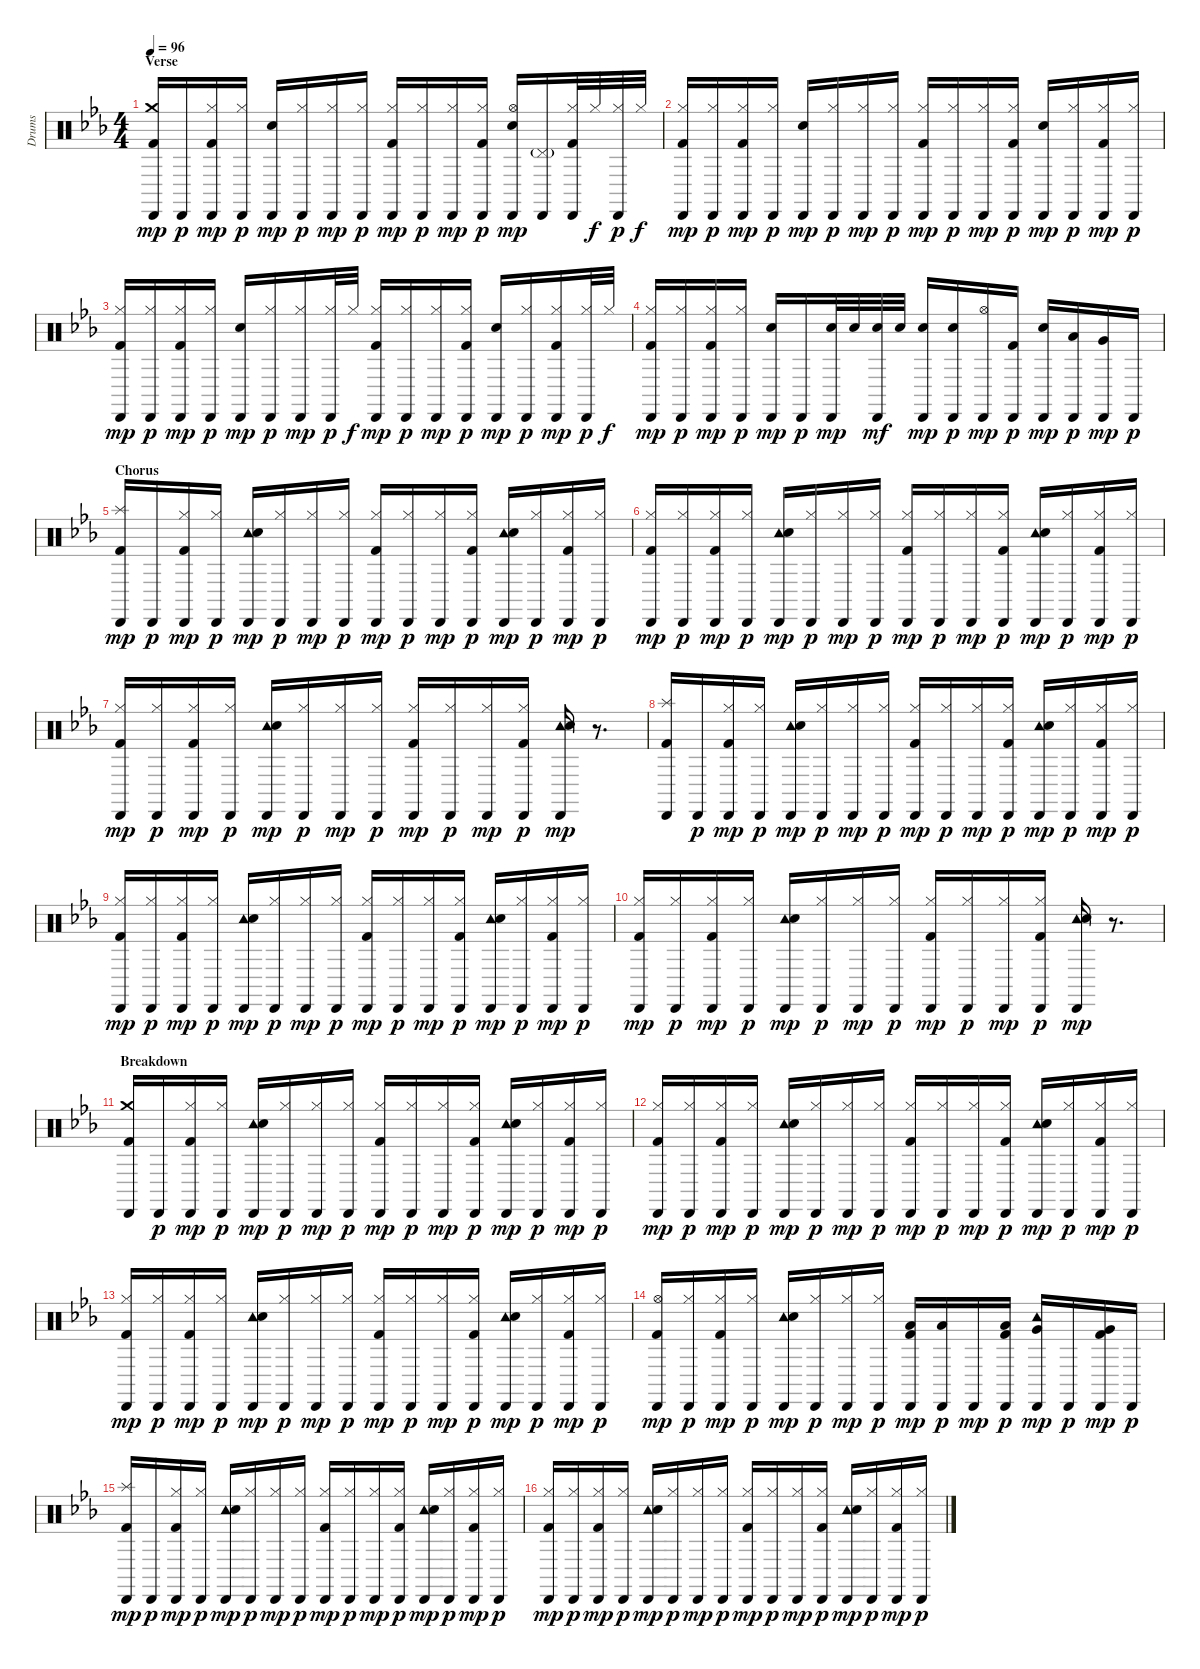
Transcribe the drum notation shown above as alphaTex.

\track ("Drums" "Drums") {instrument percussion}
\staff {score}
\articulation defaults
\ts (4 4)
\section ("" "Verse")
\tempo 96
\clef neutral
\ks eb
("Kick (hit) 2" "Crash medium (hit)" "Cabasa (hit)").16{dy mp} "Cabasa (hit)".16{dy p} ("Kick (hit) 2" "Cabasa (hit)" "Hi-Hat (closed)").16{dy mp} ("Cabasa (hit)" "Hi-Hat (closed)").16{dy p} ("Cabasa (hit)" "Snare (hit) 2").16{dy mp} ("Cabasa (hit)" "Hi-Hat (closed)").16{dy p} ("Cabasa (hit)" "Hi-Hat (closed)").16{dy mp} ("Cabasa (hit)" "Hi-Hat (closed)").16{dy p} ("Kick (hit) 2" "Cabasa (hit)" "Hi-Hat (closed)").16{dy mp} ("Cabasa (hit)" "Hi-Hat (closed)").16{dy p} ("Cabasa (hit)" "Hi-Hat (closed)").16{dy mp} ("Kick (hit) 2" "Cabasa (hit)" "Hi-Hat (closed)").16{dy p} ("Cabasa (hit)" "Snare (hit) 2" "Hi-Hat (open)").16{dy mp} ("Cabasa (hit)" "Pedal Hi-Hat (hit)"{g}).16 ("Kick (hit) 2" "Cabasa (hit)" "Hi-Hat (closed)").32 "Hi-Hat (closed)".32{dy f} ("Cabasa (hit)" "Hi-Hat (closed)").32{dy p} "Hi-Hat (closed)".32{dy f} |
("Kick (hit) 2" "Cabasa (hit)" "Hi-Hat (closed)").16{dy mp} ("Cabasa (hit)" "Hi-Hat (closed)").16{dy p} ("Kick (hit) 2" "Cabasa (hit)" "Hi-Hat (closed)").16{dy mp} ("Cabasa (hit)" "Hi-Hat (closed)").16{dy p} ("Cabasa (hit)" "Snare (hit) 2").16{dy mp} ("Cabasa (hit)" "Hi-Hat (closed)").16{dy p} ("Cabasa (hit)" "Hi-Hat (closed)").16{dy mp} ("Cabasa (hit)" "Hi-Hat (closed)").16{dy p} ("Kick (hit) 2" "Cabasa (hit)" "Hi-Hat (closed)").16{dy mp} ("Cabasa (hit)" "Hi-Hat (closed)").16{dy p} ("Cabasa (hit)" "Hi-Hat (closed)").16{dy mp} ("Kick (hit) 2" "Cabasa (hit)" "Hi-Hat (closed)").16{dy p} ("Cabasa (hit)" "Snare (hit) 2").16{dy mp} ("Cabasa (hit)" "Hi-Hat (closed)").16{dy p} ("Kick (hit) 2" "Cabasa (hit)" "Hi-Hat (closed)").16{dy mp} ("Cabasa (hit)" "Hi-Hat (closed)").16{dy p} |
("Kick (hit) 2" "Cabasa (hit)" "Hi-Hat (closed)").16{dy mp} ("Cabasa (hit)" "Hi-Hat (closed)").16{dy p} ("Kick (hit) 2" "Cabasa (hit)" "Hi-Hat (closed)").16{dy mp} ("Cabasa (hit)" "Hi-Hat (closed)").16{dy p} ("Cabasa (hit)" "Snare (hit) 2").16{dy mp} ("Cabasa (hit)" "Hi-Hat (closed)").16{dy p} ("Cabasa (hit)" "Hi-Hat (closed)").16{dy mp} ("Cabasa (hit)" "Hi-Hat (closed)").32{dy p} "Hi-Hat (closed)".32{dy f} ("Kick (hit) 2" "Cabasa (hit)" "Hi-Hat (closed)").16{dy mp} ("Cabasa (hit)" "Hi-Hat (closed)").16{dy p} ("Cabasa (hit)" "Hi-Hat (closed)").16{dy mp} ("Kick (hit) 2" "Cabasa (hit)" "Hi-Hat (closed)").16{dy p} ("Cabasa (hit)" "Snare (hit) 2").16{dy mp} ("Cabasa (hit)" "Hi-Hat (closed)").16{dy p} ("Kick (hit) 2" "Cabasa (hit)" "Hi-Hat (closed)").16{dy mp} ("Cabasa (hit)" "Hi-Hat (closed)").32{dy p} "Hi-Hat (closed)".32{dy f} |
("Kick (hit) 2" "Cabasa (hit)" "Hi-Hat (closed)").16{dy mp} ("Cabasa (hit)" "Hi-Hat (closed)").16{dy p} ("Kick (hit) 2" "Cabasa (hit)" "Hi-Hat (closed)").16{dy mp} ("Cabasa (hit)" "Hi-Hat (closed)").16{dy p} ("Cabasa (hit)" "Snare (hit) 2").16{dy mp} "Cabasa (hit)".16{dy p} ("Cabasa (hit)" "Snare (hit) 2").32{dy mp} "Snare (hit) 2".32 ("Cabasa (hit)" "Snare (hit) 2").32{dy mf} "Snare (hit) 2".32 ("Cabasa (hit)" "Snare (hit) 2").16{dy mp} ("Cabasa (hit)" "Snare (hit) 2").16{dy p} ("Cabasa (hit)" "Hi-Hat (open)").16{dy mp} ("Kick (hit) 2" "Cabasa (hit)").16{dy p} ("Cabasa (hit)" "Snare (hit) 2").16{dy mp} ("Cabasa (hit)" "Low Tom (hit)").16{dy p} ("Cabasa (hit)" "Very Low Tom (hit)").16{dy mp} "Cabasa (hit)".16{dy p} |
\section ("" "Chorus")
("Kick (hit) 2" "Splash (hit)" "Cabasa (hit)").16{dy mp} "Cabasa (hit)".16{dy p} ("Kick (hit) 2" "Cabasa (hit)" "Hi-Hat (closed)").16{dy mp} ("Cabasa (hit)" "Hi-Hat (closed)").16{dy p} ("Tambourine (hit)" "Cabasa (hit)" "Snare (hit) 2").16{dy mp} ("Cabasa (hit)" "Hi-Hat (closed)").16{dy p} ("Cabasa (hit)" "Hi-Hat (closed)").16{dy mp} ("Cabasa (hit)" "Hi-Hat (closed)").16{dy p} ("Kick (hit) 2" "Cabasa (hit)" "Hi-Hat (closed)").16{dy mp} ("Cabasa (hit)" "Hi-Hat (closed)").16{dy p} ("Cabasa (hit)" "Hi-Hat (closed)").16{dy mp} ("Kick (hit) 2" "Cabasa (hit)" "Hi-Hat (closed)").16{dy p} ("Tambourine (hit)" "Cabasa (hit)" "Snare (hit) 2").16{dy mp} ("Cabasa (hit)" "Hi-Hat (closed)").16{dy p} ("Kick (hit) 2" "Cabasa (hit)" "Hi-Hat (closed)").16{dy mp} ("Cabasa (hit)" "Hi-Hat (closed)").16{dy p} |
("Kick (hit) 2" "Cabasa (hit)" "Hi-Hat (closed)").16{dy mp} ("Cabasa (hit)" "Hi-Hat (closed)").16{dy p} ("Kick (hit) 2" "Cabasa (hit)" "Hi-Hat (closed)").16{dy mp} ("Cabasa (hit)" "Hi-Hat (closed)").16{dy p} ("Tambourine (hit)" "Cabasa (hit)" "Snare (hit) 2").16{dy mp} ("Cabasa (hit)" "Hi-Hat (closed)").16{dy p} ("Cabasa (hit)" "Hi-Hat (closed)").16{dy mp} ("Cabasa (hit)" "Hi-Hat (closed)").16{dy p} ("Kick (hit) 2" "Cabasa (hit)" "Hi-Hat (closed)").16{dy mp} ("Cabasa (hit)" "Hi-Hat (closed)").16{dy p} ("Cabasa (hit)" "Hi-Hat (closed)").16{dy mp} ("Kick (hit) 2" "Cabasa (hit)" "Hi-Hat (closed)").16{dy p} ("Tambourine (hit)" "Cabasa (hit)" "Snare (hit) 2").16{dy mp} ("Cabasa (hit)" "Hi-Hat (closed)").16{dy p} ("Kick (hit) 2" "Cabasa (hit)" "Hi-Hat (closed)").16{dy mp} ("Cabasa (hit)" "Hi-Hat (closed)").16{dy p} |
("Kick (hit) 2" "Cabasa (hit)" "Hi-Hat (closed)").16{dy mp} ("Cabasa (hit)" "Hi-Hat (closed)").16{dy p} ("Kick (hit) 2" "Cabasa (hit)" "Hi-Hat (closed)").16{dy mp} ("Cabasa (hit)" "Hi-Hat (closed)").16{dy p} ("Tambourine (hit)" "Cabasa (hit)" "Snare (hit) 2").16{dy mp} ("Cabasa (hit)" "Hi-Hat (closed)").16{dy p} ("Cabasa (hit)" "Hi-Hat (closed)").16{dy mp} ("Cabasa (hit)" "Hi-Hat (closed)").16{dy p} ("Kick (hit) 2" "Cabasa (hit)" "Hi-Hat (closed)").16{dy mp} ("Cabasa (hit)" "Hi-Hat (closed)").16{dy p} ("Cabasa (hit)" "Hi-Hat (closed)").16{dy mp} ("Kick (hit) 2" "Cabasa (hit)" "Hi-Hat (closed)").16{dy p} ("Tambourine (hit)" "Cabasa (hit)" "Snare (hit) 2").16{dy mp} r.8{d} |
("Kick (hit) 2" "Splash (hit)" "Cabasa (hit)").16 "Cabasa (hit)".16{dy p} ("Kick (hit) 2" "Cabasa (hit)" "Hi-Hat (closed)").16{dy mp} ("Cabasa (hit)" "Hi-Hat (closed)").16{dy p} ("Tambourine (hit)" "Cabasa (hit)" "Snare (hit) 2").16{dy mp} ("Cabasa (hit)" "Hi-Hat (closed)").16{dy p} ("Cabasa (hit)" "Hi-Hat (closed)").16{dy mp} ("Cabasa (hit)" "Hi-Hat (closed)").16{dy p} ("Kick (hit) 2" "Cabasa (hit)" "Hi-Hat (closed)").16{dy mp} ("Cabasa (hit)" "Hi-Hat (closed)").16{dy p} ("Cabasa (hit)" "Hi-Hat (closed)").16{dy mp} ("Kick (hit) 2" "Cabasa (hit)" "Hi-Hat (closed)").16{dy p} ("Tambourine (hit)" "Cabasa (hit)" "Snare (hit) 2").16{dy mp} ("Cabasa (hit)" "Hi-Hat (closed)").16{dy p} ("Kick (hit) 2" "Cabasa (hit)" "Hi-Hat (closed)").16{dy mp} ("Cabasa (hit)" "Hi-Hat (closed)").16{dy p} |
("Kick (hit) 2" "Cabasa (hit)" "Hi-Hat (closed)").16{dy mp} ("Cabasa (hit)" "Hi-Hat (closed)").16{dy p} ("Kick (hit) 2" "Cabasa (hit)" "Hi-Hat (closed)").16{dy mp} ("Cabasa (hit)" "Hi-Hat (closed)").16{dy p} ("Tambourine (hit)" "Cabasa (hit)" "Snare (hit) 2").16{dy mp} ("Cabasa (hit)" "Hi-Hat (closed)").16{dy p} ("Cabasa (hit)" "Hi-Hat (closed)").16{dy mp} ("Cabasa (hit)" "Hi-Hat (closed)").16{dy p} ("Kick (hit) 2" "Cabasa (hit)" "Hi-Hat (closed)").16{dy mp} ("Cabasa (hit)" "Hi-Hat (closed)").16{dy p} ("Cabasa (hit)" "Hi-Hat (closed)").16{dy mp} ("Kick (hit) 2" "Cabasa (hit)" "Hi-Hat (closed)").16{dy p} ("Tambourine (hit)" "Cabasa (hit)" "Snare (hit) 2").16{dy mp} ("Cabasa (hit)" "Hi-Hat (closed)").16{dy p} ("Kick (hit) 2" "Cabasa (hit)" "Hi-Hat (closed)").16{dy mp} ("Cabasa (hit)" "Hi-Hat (closed)").16{dy p} |
("Kick (hit) 2" "Cabasa (hit)" "Hi-Hat (closed)").16{dy mp} ("Cabasa (hit)" "Hi-Hat (closed)").16{dy p} ("Kick (hit) 2" "Cabasa (hit)" "Hi-Hat (closed)").16{dy mp} ("Cabasa (hit)" "Hi-Hat (closed)").16{dy p} ("Tambourine (hit)" "Cabasa (hit)" "Snare (hit) 2").16{dy mp} ("Cabasa (hit)" "Hi-Hat (closed)").16{dy p} ("Cabasa (hit)" "Hi-Hat (closed)").16{dy mp} ("Cabasa (hit)" "Hi-Hat (closed)").16{dy p} ("Kick (hit) 2" "Cabasa (hit)" "Hi-Hat (closed)").16{dy mp} ("Cabasa (hit)" "Hi-Hat (closed)").16{dy p} ("Cabasa (hit)" "Hi-Hat (closed)").16{dy mp} ("Kick (hit) 2" "Cabasa (hit)" "Hi-Hat (closed)").16{dy p} ("Tambourine (hit)" "Cabasa (hit)" "Snare (hit) 2").16{dy mp} r.8{d} |
\section ("" "Breakdown")
("Kick (hit) 2" "Crash medium (hit)" "Cabasa (hit)").16 "Cabasa (hit)".16{dy p} ("Kick (hit) 2" "Cabasa (hit)" "Hi-Hat (closed)").16{dy mp} ("Cabasa (hit)" "Hi-Hat (closed)").16{dy p} ("Tambourine (hit)" "Cabasa (hit)" "Snare (hit) 2").16{dy mp} ("Cabasa (hit)" "Hi-Hat (closed)").16{dy p} ("Cabasa (hit)" "Hi-Hat (closed)").16{dy mp} ("Cabasa (hit)" "Hi-Hat (closed)").16{dy p} ("Kick (hit) 2" "Cabasa (hit)" "Hi-Hat (closed)").16{dy mp} ("Cabasa (hit)" "Hi-Hat (closed)").16{dy p} ("Cabasa (hit)" "Hi-Hat (closed)").16{dy mp} ("Kick (hit) 2" "Cabasa (hit)" "Hi-Hat (closed)").16{dy p} ("Tambourine (hit)" "Cabasa (hit)" "Snare (hit) 2").16{dy mp} ("Cabasa (hit)" "Hi-Hat (closed)").16{dy p} ("Kick (hit) 2" "Cabasa (hit)" "Hi-Hat (closed)").16{dy mp} ("Cabasa (hit)" "Hi-Hat (closed)").16{dy p} |
("Kick (hit) 2" "Cabasa (hit)" "Hi-Hat (closed)").16{dy mp} ("Cabasa (hit)" "Hi-Hat (closed)").16{dy p} ("Kick (hit) 2" "Cabasa (hit)" "Hi-Hat (closed)").16{dy mp} ("Cabasa (hit)" "Hi-Hat (closed)").16{dy p} ("Tambourine (hit)" "Cabasa (hit)" "Snare (hit) 2").16{dy mp} ("Cabasa (hit)" "Hi-Hat (closed)").16{dy p} ("Cabasa (hit)" "Hi-Hat (closed)").16{dy mp} ("Cabasa (hit)" "Hi-Hat (closed)").16{dy p} ("Kick (hit) 2" "Cabasa (hit)" "Hi-Hat (closed)").16{dy mp} ("Cabasa (hit)" "Hi-Hat (closed)").16{dy p} ("Cabasa (hit)" "Hi-Hat (closed)").16{dy mp} ("Kick (hit) 2" "Cabasa (hit)" "Hi-Hat (closed)").16{dy p} ("Tambourine (hit)" "Cabasa (hit)" "Snare (hit) 2").16{dy mp} ("Cabasa (hit)" "Hi-Hat (closed)").16{dy p} ("Kick (hit) 2" "Cabasa (hit)" "Hi-Hat (closed)").16{dy mp} ("Cabasa (hit)" "Hi-Hat (closed)").16{dy p} |
("Kick (hit) 2" "Cabasa (hit)" "Hi-Hat (closed)").16{dy mp} ("Cabasa (hit)" "Hi-Hat (closed)").16{dy p} ("Kick (hit) 2" "Cabasa (hit)" "Hi-Hat (closed)").16{dy mp} ("Cabasa (hit)" "Hi-Hat (closed)").16{dy p} ("Tambourine (hit)" "Cabasa (hit)" "Snare (hit) 2").16{dy mp} ("Cabasa (hit)" "Hi-Hat (closed)").16{dy p} ("Cabasa (hit)" "Hi-Hat (closed)").16{dy mp} ("Cabasa (hit)" "Hi-Hat (closed)").16{dy p} ("Kick (hit) 2" "Cabasa (hit)" "Hi-Hat (closed)").16{dy mp} ("Cabasa (hit)" "Hi-Hat (closed)").16{dy p} ("Cabasa (hit)" "Hi-Hat (closed)").16{dy mp} ("Kick (hit) 2" "Cabasa (hit)" "Hi-Hat (closed)").16{dy p} ("Tambourine (hit)" "Cabasa (hit)" "Snare (hit) 2").16{dy mp} ("Cabasa (hit)" "Hi-Hat (closed)").16{dy p} ("Kick (hit) 2" "Cabasa (hit)" "Hi-Hat (closed)").16{dy mp} ("Cabasa (hit)" "Hi-Hat (closed)").16{dy p} |
("Kick (hit) 2" "Cabasa (hit)" "Hi-Hat (open)").16{dy mp} ("Cabasa (hit)" "Hi-Hat (closed)").16{dy p} ("Kick (hit) 2" "Cabasa (hit)" "Hi-Hat (closed)").16{dy mp} ("Cabasa (hit)" "Hi-Hat (closed)").16{dy p} ("Tambourine (hit)" "Cabasa (hit)" "Snare (hit) 2").16{dy mp} ("Cabasa (hit)" "Hi-Hat (closed)").16{dy p} ("Cabasa (hit)" "Hi-Hat (closed)").16{dy mp} ("Cabasa (hit)" "Hi-Hat (closed)").16{dy p} ("Kick (hit) 2" "Cabasa (hit)" "Low Tom (hit)").16{dy mp} ("Cabasa (hit)" "Low Tom (hit)").16{dy p} "Cabasa (hit)".16{dy mp} ("Kick (hit) 2" "Cabasa (hit)" "Low Tom (hit)").16{dy p} ("Tambourine (hit)" "Cabasa (hit)" "Very Low Tom (hit)").16{dy mp} "Cabasa (hit)".16{dy p} ("Kick (hit) 2" "Cabasa (hit)" "Very Low Tom (hit)").16{dy mp} "Cabasa (hit)".16{dy p} |
("Kick (hit) 2" "Splash (hit)" "Cabasa (hit)").16{dy mp} "Cabasa (hit)".16{dy p} ("Kick (hit) 2" "Cabasa (hit)" "Hi-Hat (closed)").16{dy mp} ("Cabasa (hit)" "Hi-Hat (closed)").16{dy p} ("Tambourine (hit)" "Cabasa (hit)" "Snare (hit) 2").16{dy mp} ("Cabasa (hit)" "Hi-Hat (closed)").16{dy p} ("Cabasa (hit)" "Hi-Hat (closed)").16{dy mp} ("Cabasa (hit)" "Hi-Hat (closed)").16{dy p} ("Kick (hit) 2" "Cabasa (hit)" "Hi-Hat (closed)").16{dy mp} ("Cabasa (hit)" "Hi-Hat (closed)").16{dy p} ("Cabasa (hit)" "Hi-Hat (closed)").16{dy mp} ("Kick (hit) 2" "Cabasa (hit)" "Hi-Hat (closed)").16{dy p} ("Tambourine (hit)" "Cabasa (hit)" "Snare (hit) 2").16{dy mp} ("Cabasa (hit)" "Hi-Hat (closed)").16{dy p} ("Kick (hit) 2" "Cabasa (hit)" "Hi-Hat (closed)").16{dy mp} ("Cabasa (hit)" "Hi-Hat (closed)").16{dy p} |
("Kick (hit) 2" "Cabasa (hit)" "Hi-Hat (closed)").16{dy mp} ("Cabasa (hit)" "Hi-Hat (closed)").16{dy p} ("Kick (hit) 2" "Cabasa (hit)" "Hi-Hat (closed)").16{dy mp} ("Cabasa (hit)" "Hi-Hat (closed)").16{dy p} ("Tambourine (hit)" "Cabasa (hit)" "Snare (hit) 2").16{dy mp} ("Cabasa (hit)" "Hi-Hat (closed)").16{dy p} ("Cabasa (hit)" "Hi-Hat (closed)").16{dy mp} ("Cabasa (hit)" "Hi-Hat (closed)").16{dy p} ("Kick (hit) 2" "Cabasa (hit)" "Hi-Hat (closed)").16{dy mp} ("Cabasa (hit)" "Hi-Hat (closed)").16{dy p} ("Cabasa (hit)" "Hi-Hat (closed)").16{dy mp} ("Kick (hit) 2" "Cabasa (hit)" "Hi-Hat (closed)").16{dy p} ("Tambourine (hit)" "Cabasa (hit)" "Snare (hit) 2").16{dy mp} ("Cabasa (hit)" "Hi-Hat (closed)").16{dy p} ("Kick (hit) 2" "Cabasa (hit)" "Hi-Hat (closed)").16{dy mp} ("Cabasa (hit)" "Hi-Hat (closed)").16{dy p}
